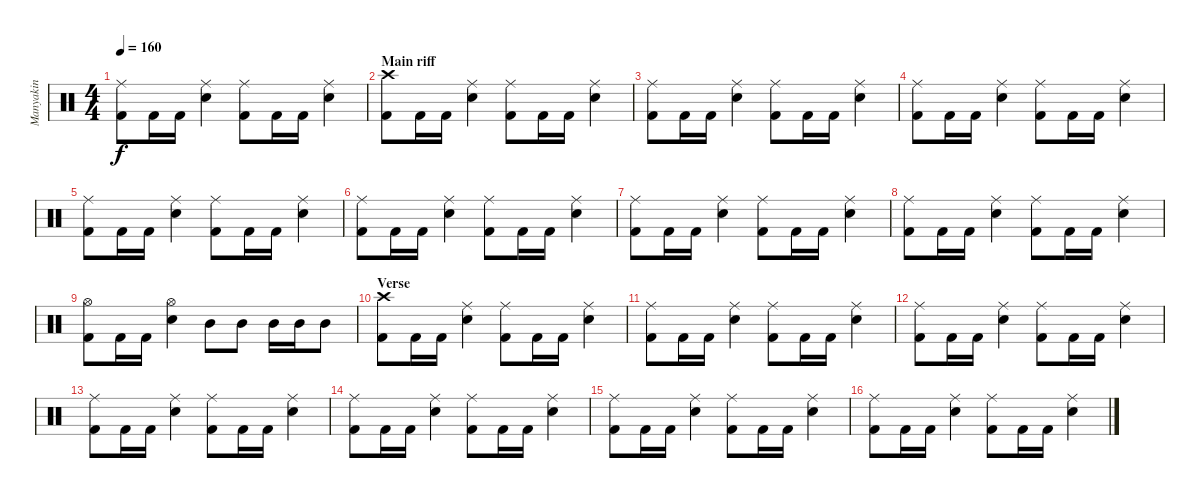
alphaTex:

\track ("Manyakin" "Manyakin") {instrument percussion}
\staff {score}
\articulation defaults
\ts (4 4)
\tempo 160
\clef neutral
\ks c
("Kick (hit) 2" "Ride (middle)").8{dy f} "Kick (hit) 2".16 "Kick (hit) 2".16 ("Snare (hit) 2" "Ride (middle)").4 ("Kick (hit) 2" "Ride (middle)").8 "Kick (hit) 2".16 "Kick (hit) 2".16 ("Snare (hit) 2" "Ride (middle)").4 |
\section ("" "Main riff")
("Kick (hit) 2" "Crash high (hit)").8 "Kick (hit) 2".16 "Kick (hit) 2".16 ("Snare (hit) 2" "Ride (middle)").4 ("Kick (hit) 2" "Ride (middle)").8 "Kick (hit) 2".16 "Kick (hit) 2".16 ("Snare (hit) 2" "Ride (middle)").4 |
("Kick (hit) 2" "Ride (middle)").8 "Kick (hit) 2".16 "Kick (hit) 2".16 ("Snare (hit) 2" "Ride (middle)").4 ("Kick (hit) 2" "Ride (middle)").8 "Kick (hit) 2".16 "Kick (hit) 2".16 ("Snare (hit) 2" "Ride (middle)").4 |
("Kick (hit) 2" "Ride (middle)").8 "Kick (hit) 2".16 "Kick (hit) 2".16 ("Snare (hit) 2" "Ride (middle)").4 ("Kick (hit) 2" "Ride (middle)").8 "Kick (hit) 2".16 "Kick (hit) 2".16 ("Snare (hit) 2" "Ride (middle)").4 |
("Kick (hit) 2" "Ride (middle)").8 "Kick (hit) 2".16 "Kick (hit) 2".16 ("Snare (hit) 2" "Ride (middle)").4 ("Kick (hit) 2" "Ride (middle)").8 "Kick (hit) 2".16 "Kick (hit) 2".16 ("Snare (hit) 2" "Ride (middle)").4 |
("Kick (hit) 2" "Ride (middle)").8 "Kick (hit) 2".16 "Kick (hit) 2".16 ("Snare (hit) 2" "Ride (middle)").4 ("Kick (hit) 2" "Ride (middle)").8 "Kick (hit) 2".16 "Kick (hit) 2".16 ("Snare (hit) 2" "Ride (middle)").4 |
("Kick (hit) 2" "Ride (middle)").8 "Kick (hit) 2".16 "Kick (hit) 2".16 ("Snare (hit) 2" "Ride (middle)").4 ("Kick (hit) 2" "Ride (middle)").8 "Kick (hit) 2".16 "Kick (hit) 2".16 ("Snare (hit) 2" "Ride (middle)").4 |
("Kick (hit) 2" "Ride (middle)").8 "Kick (hit) 2".16 "Kick (hit) 2".16 ("Snare (hit) 2" "Ride (middle)").4 ("Kick (hit) 2" "Ride (middle)").8 "Kick (hit) 2".16 "Kick (hit) 2".16 ("Snare (hit) 2" "Ride (middle)").4 |
("Kick (hit) 2" "Hi-Hat (open)").8 "Kick (hit) 2".16 "Kick (hit) 2".16 ("Snare (hit) 2" "Hi-Hat (open)").4 "Mid Tom (hit)".8 "Mid Tom (hit)".8 "Mid Tom (hit)".16 "Mid Tom (hit)".16 "Mid Tom (hit)".8 |
\section ("" "Verse")
("Kick (hit) 2" "Crash high (hit)").8 "Kick (hit) 2".16 "Kick (hit) 2".16 ("Snare (hit) 2" "Ride (middle)").4 ("Kick (hit) 2" "Ride (middle)").8 "Kick (hit) 2".16 "Kick (hit) 2".16 ("Snare (hit) 2" "Ride (middle)").4 |
("Kick (hit) 2" "Ride (middle)").8 "Kick (hit) 2".16 "Kick (hit) 2".16 ("Snare (hit) 2" "Ride (middle)").4 ("Kick (hit) 2" "Ride (middle)").8 "Kick (hit) 2".16 "Kick (hit) 2".16 ("Snare (hit) 2" "Ride (middle)").4 |
("Kick (hit) 2" "Ride (middle)").8 "Kick (hit) 2".16 "Kick (hit) 2".16 ("Snare (hit) 2" "Ride (middle)").4 ("Kick (hit) 2" "Ride (middle)").8 "Kick (hit) 2".16 "Kick (hit) 2".16 ("Snare (hit) 2" "Ride (middle)").4 |
("Kick (hit) 2" "Ride (middle)").8 "Kick (hit) 2".16 "Kick (hit) 2".16 ("Snare (hit) 2" "Ride (middle)").4 ("Kick (hit) 2" "Ride (middle)").8 "Kick (hit) 2".16 "Kick (hit) 2".16 ("Snare (hit) 2" "Ride (middle)").4 |
("Kick (hit) 2" "Ride (middle)").8 "Kick (hit) 2".16 "Kick (hit) 2".16 ("Snare (hit) 2" "Ride (middle)").4 ("Kick (hit) 2" "Ride (middle)").8 "Kick (hit) 2".16 "Kick (hit) 2".16 ("Snare (hit) 2" "Ride (middle)").4 |
("Kick (hit) 2" "Ride (middle)").8 "Kick (hit) 2".16 "Kick (hit) 2".16 ("Snare (hit) 2" "Ride (middle)").4 ("Kick (hit) 2" "Ride (middle)").8 "Kick (hit) 2".16 "Kick (hit) 2".16 ("Snare (hit) 2" "Ride (middle)").4 |
("Kick (hit) 2" "Ride (middle)").8 "Kick (hit) 2".16 "Kick (hit) 2".16 ("Snare (hit) 2" "Ride (middle)").4 ("Kick (hit) 2" "Ride (middle)").8 "Kick (hit) 2".16 "Kick (hit) 2".16 ("Snare (hit) 2" "Ride (middle)").4
